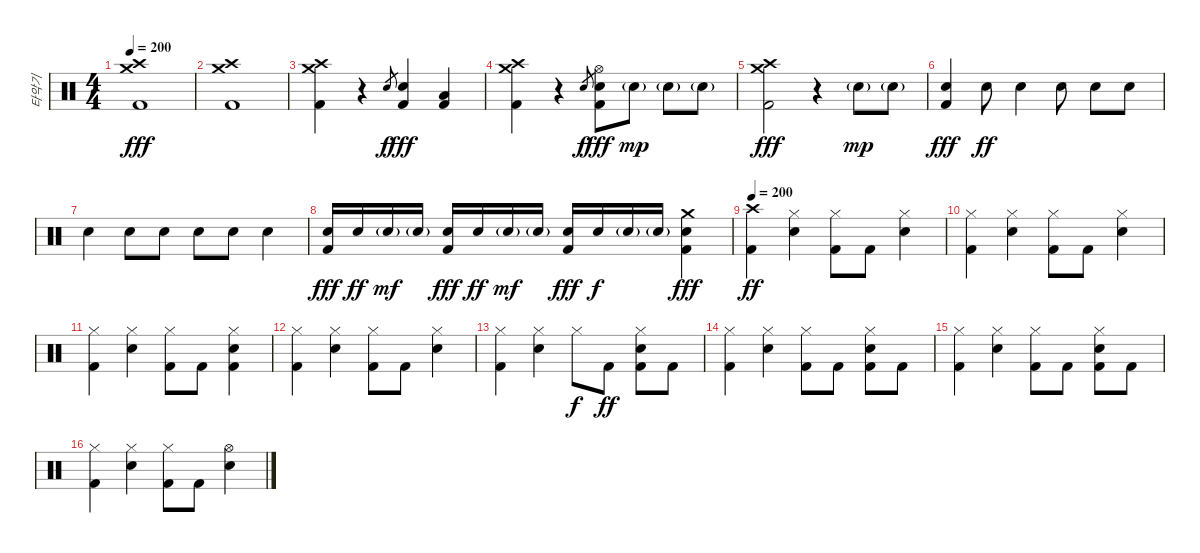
\track ("타악기" "타악기") {instrument percussion}
\staff {score}
\articulation defaults
\ts (4 4)
\tempo 200
\clef neutral
\ks c
("Crash high (hit)" "Crash medium (hit)" "Kick (hit) 2").1{dy fff} |
("Crash high (hit)" "Crash medium (hit)" "Kick (hit) 2").1 |
("Crash high (hit)" "Crash medium (hit)" "Kick (hit) 2").4 r.4 "Snare (hit) 2".8{gr dy f} ("Snare (hit) 2" "Kick (hit) 2").4{dy fff} ("Low Tom (hit)" "Kick (hit) 2").4 |
("Crash high (hit)" "Crash medium (hit)" "Kick (hit) 2").4 r.4 "Snare (hit) 2".8{gr dy f} ("Hi-Hat (open)" "Snare (hit) 2" "Kick (hit) 2").8{dy fff} "Snare (hit) 2"{g}.8{dy mp} "Snare (hit) 2"{g}.8 "Snare (hit) 2"{g}.8 |
("Crash high (hit)" "Crash medium (hit)" "Kick (hit) 2").2{dy fff} r.4 "Snare (hit) 2"{g}.8{dy mp} "Snare (hit) 2"{g}.8 |
("Snare (hit) 2" "Kick (hit) 2").4{dy fff} "Snare (hit) 2".8{dy ff} "Snare (hit) 2".4 "Snare (hit) 2".8 "Snare (hit) 2".8 "Snare (hit) 2".8 |
"Snare (hit) 2".4 "Snare (hit) 2".8 "Snare (hit) 2".8 "Snare (hit) 2".8 "Snare (hit) 2".8 "Snare (hit) 2".4 |
("Snare (hit) 2" "Kick (hit) 2").16{dy fff} "Snare (hit) 2".16{dy ff} "Snare (hit) 2"{g}.16{dy mf} "Snare (hit) 2"{g}.16 ("Snare (hit) 2" "Kick (hit) 2").16{dy fff} "Snare (hit) 2".16{dy ff} "Snare (hit) 2"{g}.16{dy mf} "Snare (hit) 2"{g}.16 ("Snare (hit) 2" "Kick (hit) 2").16{dy fff} "Snare (hit) 2".16{dy f} "Snare (hit) 2"{g}.16 "Snare (hit) 2"{g}.16 ("Crash medium (hit)" "Snare (hit) 2" "Kick (hit) 2").4{dy fff} |
\tempo 200
("Crash high (hit)" "Kick (hit) 2").4{dy ff} ("Hi-Hat (closed)" "Snare (hit) 2").4 ("Hi-Hat (closed)" "Kick (hit) 2").8 "Kick (hit) 2".8 ("Hi-Hat (closed)" "Snare (hit) 2").4 |
("Hi-Hat (closed)" "Kick (hit) 2").4 ("Hi-Hat (closed)" "Snare (hit) 2").4 ("Hi-Hat (closed)" "Kick (hit) 2").8 "Kick (hit) 2".8 ("Hi-Hat (closed)" "Snare (hit) 2").4 |
("Hi-Hat (closed)" "Kick (hit) 2").4 ("Hi-Hat (closed)" "Snare (hit) 2").4 ("Hi-Hat (closed)" "Kick (hit) 2").8 "Kick (hit) 2".8 ("Hi-Hat (closed)" "Snare (hit) 2" "Kick (hit) 2").4 |
("Hi-Hat (closed)" "Kick (hit) 2").4 ("Hi-Hat (closed)" "Snare (hit) 2").4 ("Hi-Hat (closed)" "Kick (hit) 2").8 "Kick (hit) 2".8 ("Hi-Hat (closed)" "Snare (hit) 2").4 |
("Hi-Hat (closed)" "Kick (hit) 2").4 ("Hi-Hat (closed)" "Snare (hit) 2").4 "Hi-Hat (closed)".8{dy f} "Kick (hit) 2".8{dy ff} ("Hi-Hat (closed)" "Snare (hit) 2" "Kick (hit) 2").8 "Kick (hit) 2".8 |
("Hi-Hat (closed)" "Kick (hit) 2").4 ("Hi-Hat (closed)" "Snare (hit) 2").4 ("Hi-Hat (closed)" "Kick (hit) 2").8 "Kick (hit) 2".8 ("Hi-Hat (closed)" "Snare (hit) 2" "Kick (hit) 2").8 "Kick (hit) 2".8 |
("Hi-Hat (closed)" "Kick (hit) 2").4 ("Hi-Hat (closed)" "Snare (hit) 2").4 ("Hi-Hat (closed)" "Kick (hit) 2").8 "Kick (hit) 2".8 ("Hi-Hat (closed)" "Snare (hit) 2" "Kick (hit) 2").8 "Kick (hit) 2".8 |
("Hi-Hat (closed)" "Kick (hit) 2").4 ("Hi-Hat (closed)" "Snare (hit) 2").4 ("Hi-Hat (closed)" "Kick (hit) 2").8 "Kick (hit) 2".8 ("Hi-Hat (open)" "Snare (hit) 2").4
